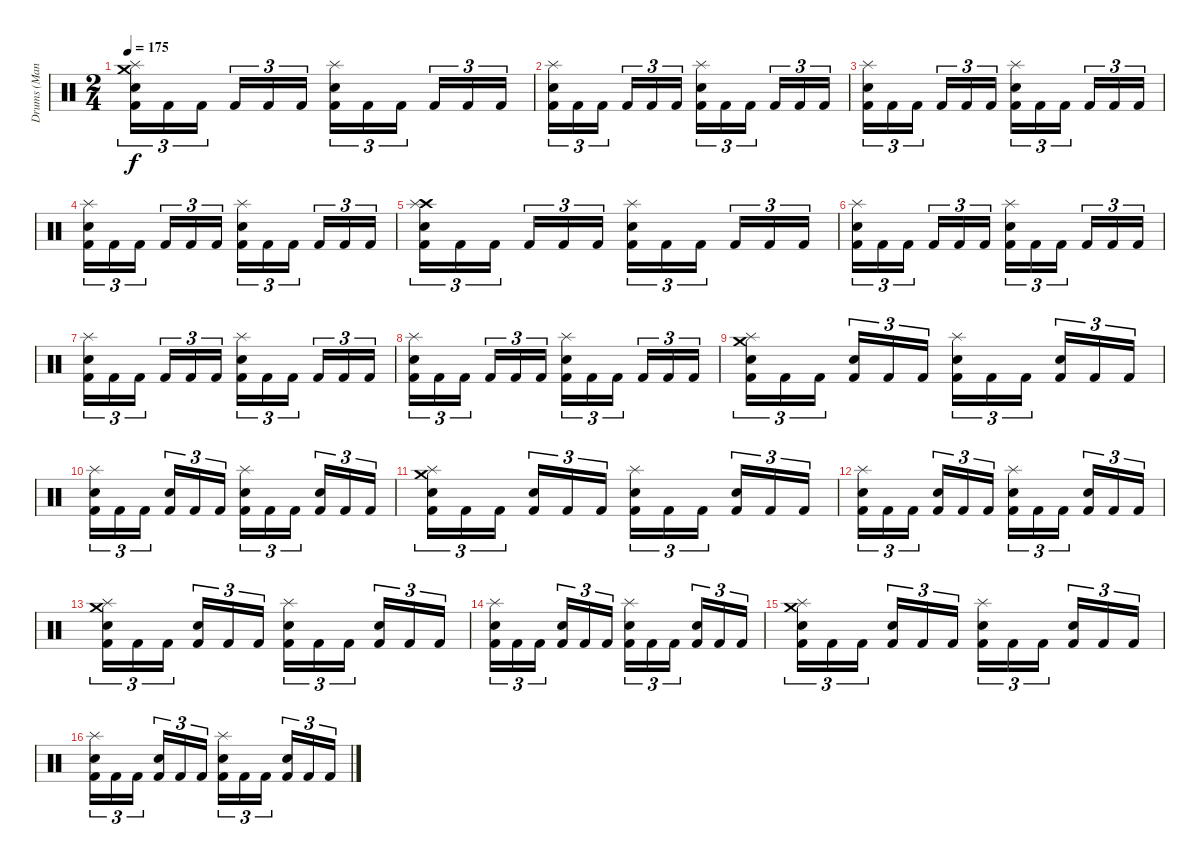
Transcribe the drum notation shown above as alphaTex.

\track ("Drums (Mancino)" "Drums (Man") {instrument percussion}
\staff {score}
\articulation defaults
\ts (2 4)
\tempo 175
\clef neutral
\ks c
("Crash medium (hit)" "Splash (hit)" "Electric Snare (hit)" "Kick (hit) 2").16{tu (3 2) dy f} "Kick (hit) 2".16{tu (3 2)} "Kick (hit) 2".16{tu (3 2)} "Kick (hit) 2".16{tu (3 2)} "Kick (hit) 2".16{tu (3 2)} "Kick (hit) 2".16{tu (3 2)} ("Splash (hit)" "Electric Snare (hit)" "Kick (hit) 2").16{tu (3 2)} "Kick (hit) 2".16{tu (3 2)} "Kick (hit) 2".16{tu (3 2)} "Kick (hit) 2".16{tu (3 2)} "Kick (hit) 2".16{tu (3 2)} "Kick (hit) 2".16{tu (3 2)} |
("Splash (hit)" "Electric Snare (hit)" "Kick (hit) 2").16{tu (3 2)} "Kick (hit) 2".16{tu (3 2)} "Kick (hit) 2".16{tu (3 2)} "Kick (hit) 2".16{tu (3 2)} "Kick (hit) 2".16{tu (3 2)} "Kick (hit) 2".16{tu (3 2)} ("Splash (hit)" "Electric Snare (hit)" "Kick (hit) 2").16{tu (3 2)} "Kick (hit) 2".16{tu (3 2)} "Kick (hit) 2".16{tu (3 2)} "Kick (hit) 2".16{tu (3 2)} "Kick (hit) 2".16{tu (3 2)} "Kick (hit) 2".16{tu (3 2)} |
("Splash (hit)" "Electric Snare (hit)" "Kick (hit) 2").16{tu (3 2)} "Kick (hit) 2".16{tu (3 2)} "Kick (hit) 2".16{tu (3 2)} "Kick (hit) 2".16{tu (3 2)} "Kick (hit) 2".16{tu (3 2)} "Kick (hit) 2".16{tu (3 2)} ("Splash (hit)" "Electric Snare (hit)" "Kick (hit) 2").16{tu (3 2)} "Kick (hit) 2".16{tu (3 2)} "Kick (hit) 2".16{tu (3 2)} "Kick (hit) 2".16{tu (3 2)} "Kick (hit) 2".16{tu (3 2)} "Kick (hit) 2".16{tu (3 2)} |
("Splash (hit)" "Electric Snare (hit)" "Kick (hit) 2").16{tu (3 2)} "Kick (hit) 2".16{tu (3 2)} "Kick (hit) 2".16{tu (3 2)} "Kick (hit) 2".16{tu (3 2)} "Kick (hit) 2".16{tu (3 2)} "Kick (hit) 2".16{tu (3 2)} ("Splash (hit)" "Electric Snare (hit)" "Kick (hit) 2").16{tu (3 2)} "Kick (hit) 2".16{tu (3 2)} "Kick (hit) 2".16{tu (3 2)} "Kick (hit) 2".16{tu (3 2)} "Kick (hit) 2".16{tu (3 2)} "Kick (hit) 2".16{tu (3 2)} |
("Crash high (hit)" "Splash (hit)" "Electric Snare (hit)" "Kick (hit) 2").16{tu (3 2)} "Kick (hit) 2".16{tu (3 2)} "Kick (hit) 2".16{tu (3 2)} "Kick (hit) 2".16{tu (3 2)} "Kick (hit) 2".16{tu (3 2)} "Kick (hit) 2".16{tu (3 2)} ("Splash (hit)" "Electric Snare (hit)" "Kick (hit) 2").16{tu (3 2)} "Kick (hit) 2".16{tu (3 2)} "Kick (hit) 2".16{tu (3 2)} "Kick (hit) 2".16{tu (3 2)} "Kick (hit) 2".16{tu (3 2)} "Kick (hit) 2".16{tu (3 2)} |
("Splash (hit)" "Electric Snare (hit)" "Kick (hit) 2").16{tu (3 2)} "Kick (hit) 2".16{tu (3 2)} "Kick (hit) 2".16{tu (3 2)} "Kick (hit) 2".16{tu (3 2)} "Kick (hit) 2".16{tu (3 2)} "Kick (hit) 2".16{tu (3 2)} ("Splash (hit)" "Electric Snare (hit)" "Kick (hit) 2").16{tu (3 2)} "Kick (hit) 2".16{tu (3 2)} "Kick (hit) 2".16{tu (3 2)} "Kick (hit) 2".16{tu (3 2)} "Kick (hit) 2".16{tu (3 2)} "Kick (hit) 2".16{tu (3 2)} |
("Splash (hit)" "Electric Snare (hit)" "Kick (hit) 2").16{tu (3 2)} "Kick (hit) 2".16{tu (3 2)} "Kick (hit) 2".16{tu (3 2)} "Kick (hit) 2".16{tu (3 2)} "Kick (hit) 2".16{tu (3 2)} "Kick (hit) 2".16{tu (3 2)} ("Splash (hit)" "Electric Snare (hit)" "Kick (hit) 2").16{tu (3 2)} "Kick (hit) 2".16{tu (3 2)} "Kick (hit) 2".16{tu (3 2)} "Kick (hit) 2".16{tu (3 2)} "Kick (hit) 2".16{tu (3 2)} "Kick (hit) 2".16{tu (3 2)} |
("Splash (hit)" "Electric Snare (hit)" "Kick (hit) 2").16{tu (3 2)} "Kick (hit) 2".16{tu (3 2)} "Kick (hit) 2".16{tu (3 2)} "Kick (hit) 2".16{tu (3 2)} "Kick (hit) 2".16{tu (3 2)} "Kick (hit) 2".16{tu (3 2)} ("Splash (hit)" "Electric Snare (hit)" "Kick (hit) 2").16{tu (3 2)} "Kick (hit) 2".16{tu (3 2)} "Kick (hit) 2".16{tu (3 2)} "Kick (hit) 2".16{tu (3 2)} "Kick (hit) 2".16{tu (3 2)} "Kick (hit) 2".16{tu (3 2)} |
("Crash medium (hit)" "Splash (hit)" "Electric Snare (hit)" "Kick (hit) 2").16{tu (3 2)} "Kick (hit) 2".16{tu (3 2)} "Kick (hit) 2".16{tu (3 2)} ("Electric Snare (hit)" "Kick (hit) 2").16{tu (3 2)} "Kick (hit) 2".16{tu (3 2)} "Kick (hit) 2".16{tu (3 2)} ("Splash (hit)" "Electric Snare (hit)" "Kick (hit) 2").16{tu (3 2)} "Kick (hit) 2".16{tu (3 2)} "Kick (hit) 2".16{tu (3 2)} ("Electric Snare (hit)" "Kick (hit) 2").16{tu (3 2)} "Kick (hit) 2".16{tu (3 2)} "Kick (hit) 2".16{tu (3 2)} |
("Splash (hit)" "Electric Snare (hit)" "Kick (hit) 2").16{tu (3 2)} "Kick (hit) 2".16{tu (3 2)} "Kick (hit) 2".16{tu (3 2)} ("Electric Snare (hit)" "Kick (hit) 2").16{tu (3 2)} "Kick (hit) 2".16{tu (3 2)} "Kick (hit) 2".16{tu (3 2)} ("Splash (hit)" "Electric Snare (hit)" "Kick (hit) 2").16{tu (3 2)} "Kick (hit) 2".16{tu (3 2)} "Kick (hit) 2".16{tu (3 2)} ("Electric Snare (hit)" "Kick (hit) 2").16{tu (3 2)} "Kick (hit) 2".16{tu (3 2)} "Kick (hit) 2".16{tu (3 2)} |
("Crash medium (hit)" "Splash (hit)" "Electric Snare (hit)" "Kick (hit) 2").16{tu (3 2)} "Kick (hit) 2".16{tu (3 2)} "Kick (hit) 2".16{tu (3 2)} ("Electric Snare (hit)" "Kick (hit) 2").16{tu (3 2)} "Kick (hit) 2".16{tu (3 2)} "Kick (hit) 2".16{tu (3 2)} ("Splash (hit)" "Electric Snare (hit)" "Kick (hit) 2").16{tu (3 2)} "Kick (hit) 2".16{tu (3 2)} "Kick (hit) 2".16{tu (3 2)} ("Electric Snare (hit)" "Kick (hit) 2").16{tu (3 2)} "Kick (hit) 2".16{tu (3 2)} "Kick (hit) 2".16{tu (3 2)} |
("Splash (hit)" "Electric Snare (hit)" "Kick (hit) 2").16{tu (3 2)} "Kick (hit) 2".16{tu (3 2)} "Kick (hit) 2".16{tu (3 2)} ("Electric Snare (hit)" "Kick (hit) 2").16{tu (3 2)} "Kick (hit) 2".16{tu (3 2)} "Kick (hit) 2".16{tu (3 2)} ("Splash (hit)" "Electric Snare (hit)" "Kick (hit) 2").16{tu (3 2)} "Kick (hit) 2".16{tu (3 2)} "Kick (hit) 2".16{tu (3 2)} ("Electric Snare (hit)" "Kick (hit) 2").16{tu (3 2)} "Kick (hit) 2".16{tu (3 2)} "Kick (hit) 2".16{tu (3 2)} |
("Crash medium (hit)" "Splash (hit)" "Electric Snare (hit)" "Kick (hit) 2").16{tu (3 2)} "Kick (hit) 2".16{tu (3 2)} "Kick (hit) 2".16{tu (3 2)} ("Electric Snare (hit)" "Kick (hit) 2").16{tu (3 2)} "Kick (hit) 2".16{tu (3 2)} "Kick (hit) 2".16{tu (3 2)} ("Splash (hit)" "Electric Snare (hit)" "Kick (hit) 2").16{tu (3 2)} "Kick (hit) 2".16{tu (3 2)} "Kick (hit) 2".16{tu (3 2)} ("Electric Snare (hit)" "Kick (hit) 2").16{tu (3 2)} "Kick (hit) 2".16{tu (3 2)} "Kick (hit) 2".16{tu (3 2)} |
("Splash (hit)" "Electric Snare (hit)" "Kick (hit) 2").16{tu (3 2)} "Kick (hit) 2".16{tu (3 2)} "Kick (hit) 2".16{tu (3 2)} ("Electric Snare (hit)" "Kick (hit) 2").16{tu (3 2)} "Kick (hit) 2".16{tu (3 2)} "Kick (hit) 2".16{tu (3 2)} ("Splash (hit)" "Electric Snare (hit)" "Kick (hit) 2").16{tu (3 2)} "Kick (hit) 2".16{tu (3 2)} "Kick (hit) 2".16{tu (3 2)} ("Electric Snare (hit)" "Kick (hit) 2").16{tu (3 2)} "Kick (hit) 2".16{tu (3 2)} "Kick (hit) 2".16{tu (3 2)} |
("Crash medium (hit)" "Splash (hit)" "Electric Snare (hit)" "Kick (hit) 2").16{tu (3 2)} "Kick (hit) 2".16{tu (3 2)} "Kick (hit) 2".16{tu (3 2)} ("Electric Snare (hit)" "Kick (hit) 2").16{tu (3 2)} "Kick (hit) 2".16{tu (3 2)} "Kick (hit) 2".16{tu (3 2)} ("Splash (hit)" "Electric Snare (hit)" "Kick (hit) 2").16{tu (3 2)} "Kick (hit) 2".16{tu (3 2)} "Kick (hit) 2".16{tu (3 2)} ("Electric Snare (hit)" "Kick (hit) 2").16{tu (3 2)} "Kick (hit) 2".16{tu (3 2)} "Kick (hit) 2".16{tu (3 2)} |
("Splash (hit)" "Electric Snare (hit)" "Kick (hit) 2").16{tu (3 2)} "Kick (hit) 2".16{tu (3 2)} "Kick (hit) 2".16{tu (3 2)} ("Electric Snare (hit)" "Kick (hit) 2").16{tu (3 2)} "Kick (hit) 2".16{tu (3 2)} "Kick (hit) 2".16{tu (3 2)} ("Splash (hit)" "Electric Snare (hit)" "Kick (hit) 2").16{tu (3 2)} "Kick (hit) 2".16{tu (3 2)} "Kick (hit) 2".16{tu (3 2)} ("Electric Snare (hit)" "Kick (hit) 2").16{tu (3 2)} "Kick (hit) 2".16{tu (3 2)} "Kick (hit) 2".16{tu (3 2)}
